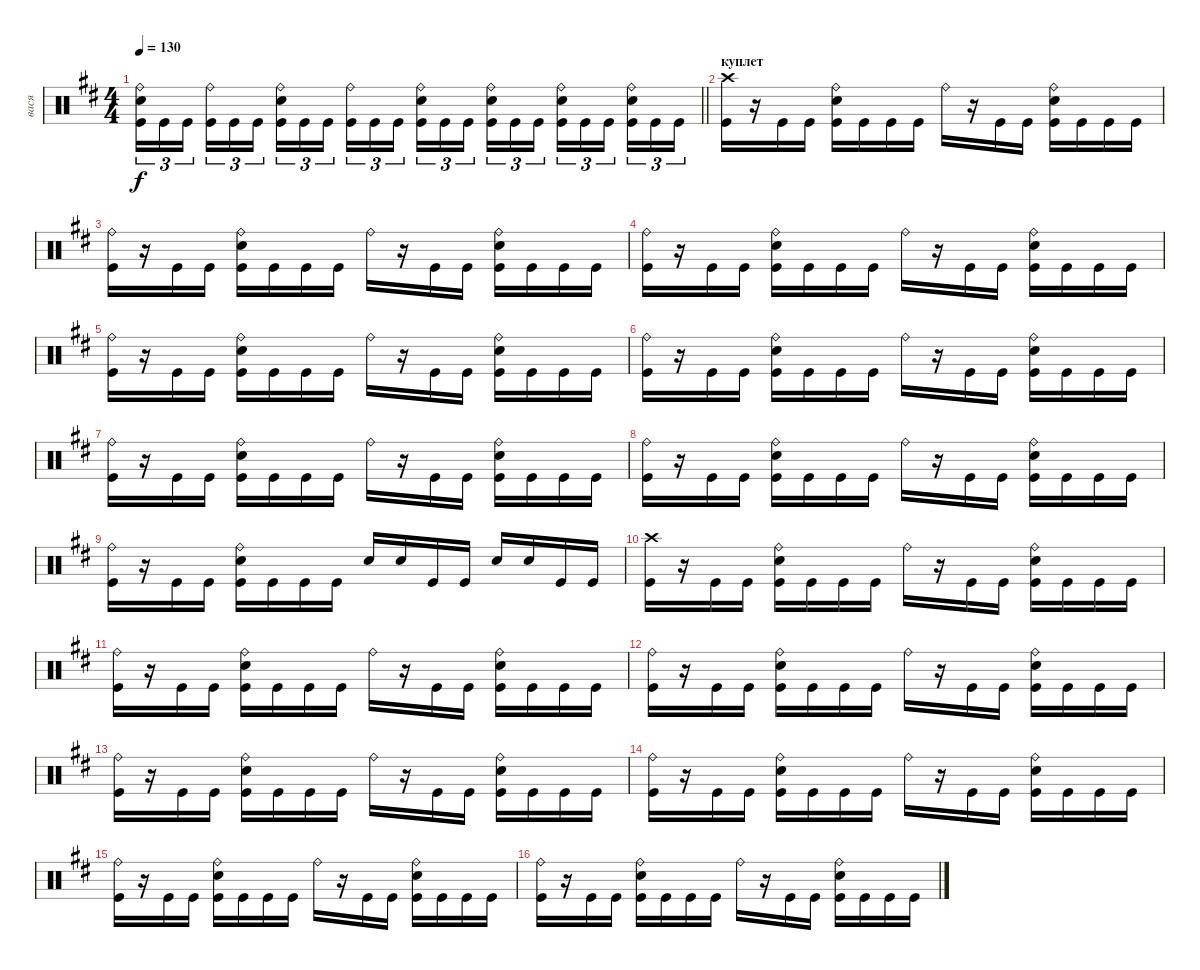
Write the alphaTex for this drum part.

\track ("вася" "вася") {instrument percussion}
\staff {score}
\articulation defaults
\ts (4 4)
\tempo 130
\clef neutral
\barLineRight lightlight
\ks bminor
("Ride (bell)" "Electric Snare (hit)" "Kick (hit)").16{tu (3 2) dy f} "Kick (hit)".16{tu (3 2)} "Kick (hit)".16{tu (3 2) beam splitsecondary} ("Ride (bell)" "Kick (hit)").16{tu (3 2)} "Kick (hit)".16{tu (3 2)} "Kick (hit)".16{tu (3 2)} ("Ride (bell)" "Electric Snare (hit)" "Kick (hit)").16{tu (3 2)} "Kick (hit)".16{tu (3 2)} "Kick (hit)".16{tu (3 2) beam splitsecondary} ("Ride (bell)" "Kick (hit)").16{tu (3 2)} "Kick (hit)".16{tu (3 2)} "Kick (hit)".16{tu (3 2)} ("Ride (bell)" "Electric Snare (hit)" "Kick (hit)").16{tu (3 2)} "Kick (hit)".16{tu (3 2)} "Kick (hit)".16{tu (3 2) beam splitsecondary} ("Ride (bell)" "Electric Snare (hit)" "Kick (hit)").16{tu (3 2)} "Kick (hit)".16{tu (3 2)} "Kick (hit)".16{tu (3 2)} ("Ride (bell)" "Electric Snare (hit)" "Kick (hit)").16{tu (3 2)} "Kick (hit)".16{tu (3 2)} "Kick (hit)".16{tu (3 2) beam splitsecondary} ("Ride (bell)" "Electric Snare (hit)" "Kick (hit)").16{tu (3 2)} "Kick (hit)".16{tu (3 2)} "Kick (hit)".16{tu (3 2)} |
\section ("" "куплет")
("Crash high (hit)" "Kick (hit)").16 r.16 "Kick (hit)".16 "Kick (hit)".16 ("Ride (bell)" "Electric Snare (hit)" "Kick (hit)").16 "Kick (hit)".16 "Kick (hit)".16 "Kick (hit)".16 "Ride (bell)".16 r.16 "Kick (hit)".16 "Kick (hit)".16 ("Ride (bell)" "Electric Snare (hit)" "Kick (hit)").16 "Kick (hit)".16 "Kick (hit)".16 "Kick (hit)".16 |
("Ride (bell)" "Kick (hit)").16 r.16 "Kick (hit)".16 "Kick (hit)".16 ("Ride (bell)" "Electric Snare (hit)" "Kick (hit)").16 "Kick (hit)".16 "Kick (hit)".16 "Kick (hit)".16 "Ride (bell)".16 r.16 "Kick (hit)".16 "Kick (hit)".16 ("Ride (bell)" "Electric Snare (hit)" "Kick (hit)").16 "Kick (hit)".16 "Kick (hit)".16 "Kick (hit)".16 |
("Ride (bell)" "Kick (hit)").16 r.16 "Kick (hit)".16 "Kick (hit)".16 ("Ride (bell)" "Electric Snare (hit)" "Kick (hit)").16 "Kick (hit)".16 "Kick (hit)".16 "Kick (hit)".16 "Ride (bell)".16 r.16 "Kick (hit)".16 "Kick (hit)".16 ("Ride (bell)" "Electric Snare (hit)" "Kick (hit)").16 "Kick (hit)".16 "Kick (hit)".16 "Kick (hit)".16 |
("Ride (bell)" "Kick (hit)").16 r.16 "Kick (hit)".16 "Kick (hit)".16 ("Ride (bell)" "Electric Snare (hit)" "Kick (hit)").16 "Kick (hit)".16 "Kick (hit)".16 "Kick (hit)".16 "Ride (bell)".16 r.16 "Kick (hit)".16 "Kick (hit)".16 ("Ride (bell)" "Electric Snare (hit)" "Kick (hit)").16 "Kick (hit)".16 "Kick (hit)".16 "Kick (hit)".16 |
("Ride (bell)" "Kick (hit)").16 r.16 "Kick (hit)".16 "Kick (hit)".16 ("Ride (bell)" "Electric Snare (hit)" "Kick (hit)").16 "Kick (hit)".16 "Kick (hit)".16 "Kick (hit)".16 "Ride (bell)".16 r.16 "Kick (hit)".16 "Kick (hit)".16 ("Ride (bell)" "Electric Snare (hit)" "Kick (hit)").16 "Kick (hit)".16 "Kick (hit)".16 "Kick (hit)".16 |
("Ride (bell)" "Kick (hit)").16 r.16 "Kick (hit)".16 "Kick (hit)".16 ("Ride (bell)" "Electric Snare (hit)" "Kick (hit)").16 "Kick (hit)".16 "Kick (hit)".16 "Kick (hit)".16 "Ride (bell)".16 r.16 "Kick (hit)".16 "Kick (hit)".16 ("Ride (bell)" "Electric Snare (hit)" "Kick (hit)").16 "Kick (hit)".16 "Kick (hit)".16 "Kick (hit)".16 |
("Ride (bell)" "Kick (hit)").16 r.16 "Kick (hit)".16 "Kick (hit)".16 ("Ride (bell)" "Electric Snare (hit)" "Kick (hit)").16 "Kick (hit)".16 "Kick (hit)".16 "Kick (hit)".16 "Ride (bell)".16 r.16 "Kick (hit)".16 "Kick (hit)".16 ("Ride (bell)" "Electric Snare (hit)" "Kick (hit)").16 "Kick (hit)".16 "Kick (hit)".16 "Kick (hit)".16 |
("Ride (bell)" "Kick (hit)").16 r.16 "Kick (hit)".16 "Kick (hit)".16 ("Ride (bell)" "Electric Snare (hit)" "Kick (hit)").16 "Kick (hit)".16 "Kick (hit)".16 "Kick (hit)".16 "Electric Snare (hit)".16 "Electric Snare (hit)".16 "Kick (hit)".16 "Kick (hit)".16 "Electric Snare (hit)".16 "Electric Snare (hit)".16 "Kick (hit)".16 "Kick (hit)".16 |
("Crash high (hit)" "Kick (hit)").16 r.16 "Kick (hit)".16 "Kick (hit)".16 ("Ride (bell)" "Electric Snare (hit)" "Kick (hit)").16 "Kick (hit)".16 "Kick (hit)".16 "Kick (hit)".16 "Ride (bell)".16 r.16 "Kick (hit)".16 "Kick (hit)".16 ("Ride (bell)" "Electric Snare (hit)" "Kick (hit)").16 "Kick (hit)".16 "Kick (hit)".16 "Kick (hit)".16 |
("Ride (bell)" "Kick (hit)").16 r.16 "Kick (hit)".16 "Kick (hit)".16 ("Ride (bell)" "Electric Snare (hit)" "Kick (hit)").16 "Kick (hit)".16 "Kick (hit)".16 "Kick (hit)".16 "Ride (bell)".16 r.16 "Kick (hit)".16 "Kick (hit)".16 ("Ride (bell)" "Electric Snare (hit)" "Kick (hit)").16 "Kick (hit)".16 "Kick (hit)".16 "Kick (hit)".16 |
("Ride (bell)" "Kick (hit)").16 r.16 "Kick (hit)".16 "Kick (hit)".16 ("Ride (bell)" "Electric Snare (hit)" "Kick (hit)").16 "Kick (hit)".16 "Kick (hit)".16 "Kick (hit)".16 "Ride (bell)".16 r.16 "Kick (hit)".16 "Kick (hit)".16 ("Ride (bell)" "Electric Snare (hit)" "Kick (hit)").16 "Kick (hit)".16 "Kick (hit)".16 "Kick (hit)".16 |
("Ride (bell)" "Kick (hit)").16 r.16 "Kick (hit)".16 "Kick (hit)".16 ("Ride (bell)" "Electric Snare (hit)" "Kick (hit)").16 "Kick (hit)".16 "Kick (hit)".16 "Kick (hit)".16 "Ride (bell)".16 r.16 "Kick (hit)".16 "Kick (hit)".16 ("Ride (bell)" "Electric Snare (hit)" "Kick (hit)").16 "Kick (hit)".16 "Kick (hit)".16 "Kick (hit)".16 |
("Ride (bell)" "Kick (hit)").16 r.16 "Kick (hit)".16 "Kick (hit)".16 ("Ride (bell)" "Electric Snare (hit)" "Kick (hit)").16 "Kick (hit)".16 "Kick (hit)".16 "Kick (hit)".16 "Ride (bell)".16 r.16 "Kick (hit)".16 "Kick (hit)".16 ("Ride (bell)" "Electric Snare (hit)" "Kick (hit)").16 "Kick (hit)".16 "Kick (hit)".16 "Kick (hit)".16 |
("Ride (bell)" "Kick (hit)").16 r.16 "Kick (hit)".16 "Kick (hit)".16 ("Ride (bell)" "Electric Snare (hit)" "Kick (hit)").16 "Kick (hit)".16 "Kick (hit)".16 "Kick (hit)".16 "Ride (bell)".16 r.16 "Kick (hit)".16 "Kick (hit)".16 ("Ride (bell)" "Electric Snare (hit)" "Kick (hit)").16 "Kick (hit)".16 "Kick (hit)".16 "Kick (hit)".16 |
("Ride (bell)" "Kick (hit)").16 r.16 "Kick (hit)".16 "Kick (hit)".16 ("Ride (bell)" "Electric Snare (hit)" "Kick (hit)").16 "Kick (hit)".16 "Kick (hit)".16 "Kick (hit)".16 "Ride (bell)".16 r.16 "Kick (hit)".16 "Kick (hit)".16 ("Ride (bell)" "Electric Snare (hit)" "Kick (hit)").16 "Kick (hit)".16 "Kick (hit)".16 "Kick (hit)".16
